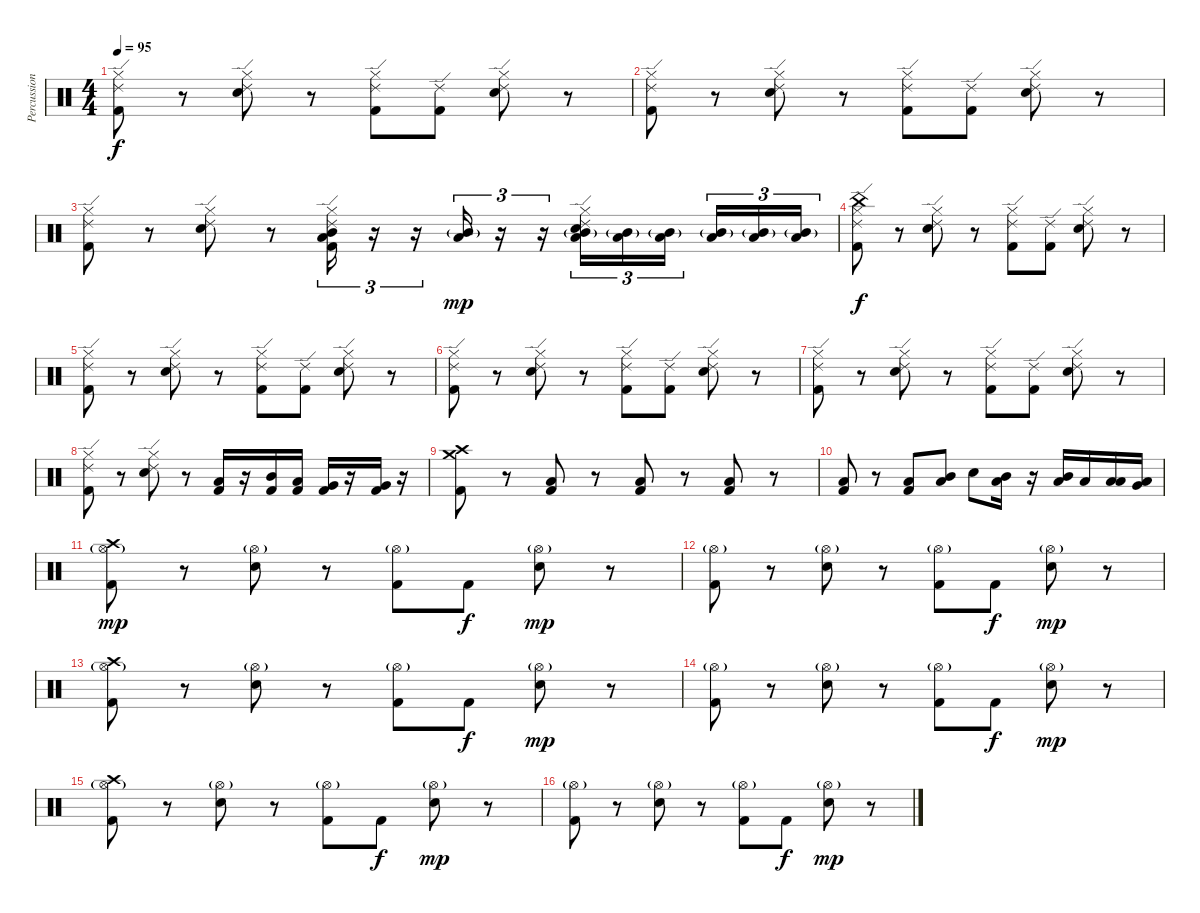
\track ("Percussions" "Percussion") {instrument percussion}
\staff {score}
\articulation defaults
\ts (4 4)
\tempo 95
\clef neutral
\ks c
("Hi-Hat (closed)" "Ride (edge) 2" "Kick (hit) 2").8{dy f} r.8 ("Hi-Hat (closed)" "Ride (edge) 2" "Snare (hit) 2").8 r.8 ("Hi-Hat (closed)" "Ride (edge) 2" "Kick (hit) 2").8 ("Ride (edge) 2" "Kick (hit) 2").8 ("Hi-Hat (closed)" "Ride (edge) 2" "Snare (hit) 2").8 r.8 |
("Hi-Hat (closed)" "Ride (edge) 2" "Kick (hit) 2").8 r.8 ("Hi-Hat (closed)" "Ride (edge) 2" "Snare (hit) 2").8 r.8 ("Hi-Hat (closed)" "Ride (edge) 2" "Kick (hit) 2").8 ("Ride (edge) 2" "Kick (hit) 2").8 ("Hi-Hat (closed)" "Ride (edge) 2" "Snare (hit) 2").8 r.8 |
("Ride (edge) 2" "Hi-Hat (closed)" "Kick (hit) 2").8 r.8 ("Ride (edge) 2" "Hi-Hat (closed)" "Snare (hit) 2").8 r.8 ("Ride (edge) 2" "Hi-Hat (closed)" "Mid Tom (hit)" "Low Floor Tom (hit)" "Kick (hit) 2").16{tu (3 2)} r.16{tu (3 2)} r.16{tu (3 2)} ("Mid Tom (hit)"{g} "Low Floor Tom (hit)").16{tu (3 2) dy mp} r.16{tu (3 2)} r.16{tu (3 2)} ("Ride (edge) 2" "Hi-Hat (closed)" "Mid Tom (hit)"{g} "Low Floor Tom (hit)" "Snare (hit) 2").16{tu (3 2)} ("Mid Tom (hit)"{g} "Low Floor Tom (hit)").16{tu (3 2)} ("Mid Tom (hit)"{g} "Low Floor Tom (hit)").16{tu (3 2)} ("Mid Tom (hit)"{g} "Low Floor Tom (hit)").16{tu (3 2)} ("Mid Tom (hit)"{g} "Low Floor Tom (hit)").16{tu (3 2)} ("Mid Tom (hit)"{g} "Low Floor Tom (hit)").16{tu (3 2)} |
("Hi-Hat (closed)" "Ride (edge) 2" "China (hit)" "Kick (hit) 2").8{dy f} r.8 ("Hi-Hat (closed)" "Ride (edge) 2" "Snare (hit) 2").8 r.8 ("Hi-Hat (closed)" "Ride (edge) 2" "Kick (hit) 2").8 ("Ride (edge) 2" "Kick (hit) 2").8 ("Hi-Hat (closed)" "Ride (edge) 2" "Snare (hit) 2").8 r.8 |
("Hi-Hat (closed)" "Ride (edge) 2" "Kick (hit) 2").8 r.8 ("Hi-Hat (closed)" "Ride (edge) 2" "Snare (hit) 2").8 r.8 ("Hi-Hat (closed)" "Ride (edge) 2" "Kick (hit) 2").8 ("Ride (edge) 2" "Kick (hit) 2").8 ("Hi-Hat (closed)" "Ride (edge) 2" "Snare (hit) 2").8 r.8 |
("Hi-Hat (closed)" "Ride (edge) 2" "Kick (hit) 2").8 r.8 ("Hi-Hat (closed)" "Ride (edge) 2" "Snare (hit) 2").8 r.8 ("Hi-Hat (closed)" "Ride (edge) 2" "Kick (hit) 2").8 ("Ride (edge) 2" "Kick (hit) 2").8 ("Hi-Hat (closed)" "Ride (edge) 2" "Snare (hit) 2").8 r.8 |
("Hi-Hat (closed)" "Ride (edge) 2" "Kick (hit) 2").8 r.8 ("Hi-Hat (closed)" "Ride (edge) 2" "Snare (hit) 2").8 r.8 ("Hi-Hat (closed)" "Ride (edge) 2" "Kick (hit) 2").8 ("Ride (edge) 2" "Kick (hit) 2").8 ("Hi-Hat (closed)" "Ride (edge) 2" "Snare (hit) 2").8 r.8 |
("Hi-Hat (closed)" "Ride (edge) 2" "Kick (hit) 2").8 r.8 ("Hi-Hat (closed)" "Ride (edge) 2" "Snare (hit) 2").8 r.8 ("Kick (hit) 2" "Low Tom (hit)").16 r.16 ("Kick (hit) 2" "Mid Tom (hit)").16 ("Kick (hit) 2" "Low Tom (hit)").16 ("Kick (hit) 2" "Very Low Tom (hit)").16 r.16 ("Kick (hit) 2" "Very Low Tom (hit)").16 r.16 |
("Crash medium (hit)" "Crash high (hit)" "Kick (hit) 2").8 r.8 ("Low Floor Tom (hit)" "Kick (hit) 2").8 r.8 ("Low Floor Tom (hit)" "Kick (hit) 2").8 r.8 ("Low Floor Tom (hit)" "Kick (hit) 2").8 r.8 |
("Low Floor Tom (hit)" "Kick (hit) 2").8 r.8 ("Low Floor Tom (hit)" "Kick (hit) 2").8 ("Mid Tom (hit)" "Low Floor Tom (hit)").8 "Snare (hit) 2".8 ("Mid Tom (hit)" "Low Floor Tom (hit)").16 r.16 ("Mid Tom (hit)" "Low Floor Tom (hit)").16 "Low Tom (hit)".16 ("Low Tom (hit)" "Low Floor Tom (hit)").16 ("Very Low Tom (hit)" "Low Floor Tom (hit)").16 |
("Hi-Hat (open)"{g} "Crash high (hit)" "Kick (hit) 2").8{dy mp} r.8 ("Hi-Hat (open)"{g} "Snare (hit) 2").8 r.8 ("Hi-Hat (open)"{g} "Kick (hit) 2").8 "Kick (hit) 2".8{dy f} ("Hi-Hat (open)"{g} "Snare (hit) 2").8{dy mp} r.8 |
("Hi-Hat (open)"{g} "Kick (hit) 2").8 r.8 ("Hi-Hat (open)"{g} "Snare (hit) 2").8 r.8 ("Hi-Hat (open)"{g} "Kick (hit) 2").8 "Kick (hit) 2".8{dy f} ("Hi-Hat (open)"{g} "Snare (hit) 2").8{dy mp} r.8 |
("Hi-Hat (open)"{g} "Crash high (hit)" "Kick (hit) 2").8 r.8 ("Hi-Hat (open)"{g} "Snare (hit) 2").8 r.8 ("Hi-Hat (open)"{g} "Kick (hit) 2").8 "Kick (hit) 2".8{dy f} ("Hi-Hat (open)"{g} "Snare (hit) 2").8{dy mp} r.8 |
("Hi-Hat (open)"{g} "Kick (hit) 2").8 r.8 ("Hi-Hat (open)"{g} "Snare (hit) 2").8 r.8 ("Hi-Hat (open)"{g} "Kick (hit) 2").8 "Kick (hit) 2".8{dy f} ("Hi-Hat (open)"{g} "Snare (hit) 2").8{dy mp} r.8 |
("Hi-Hat (open)"{g} "Crash high (hit)" "Kick (hit) 2").8 r.8 ("Hi-Hat (open)"{g} "Snare (hit) 2").8 r.8 ("Hi-Hat (open)"{g} "Kick (hit) 2").8 "Kick (hit) 2".8{dy f} ("Hi-Hat (open)"{g} "Snare (hit) 2").8{dy mp} r.8 |
("Hi-Hat (open)"{g} "Kick (hit) 2").8 r.8 ("Hi-Hat (open)"{g} "Snare (hit) 2").8 r.8 ("Hi-Hat (open)"{g} "Kick (hit) 2").8 "Kick (hit) 2".8{dy f} ("Hi-Hat (open)"{g} "Snare (hit) 2").8{dy mp} r.8
